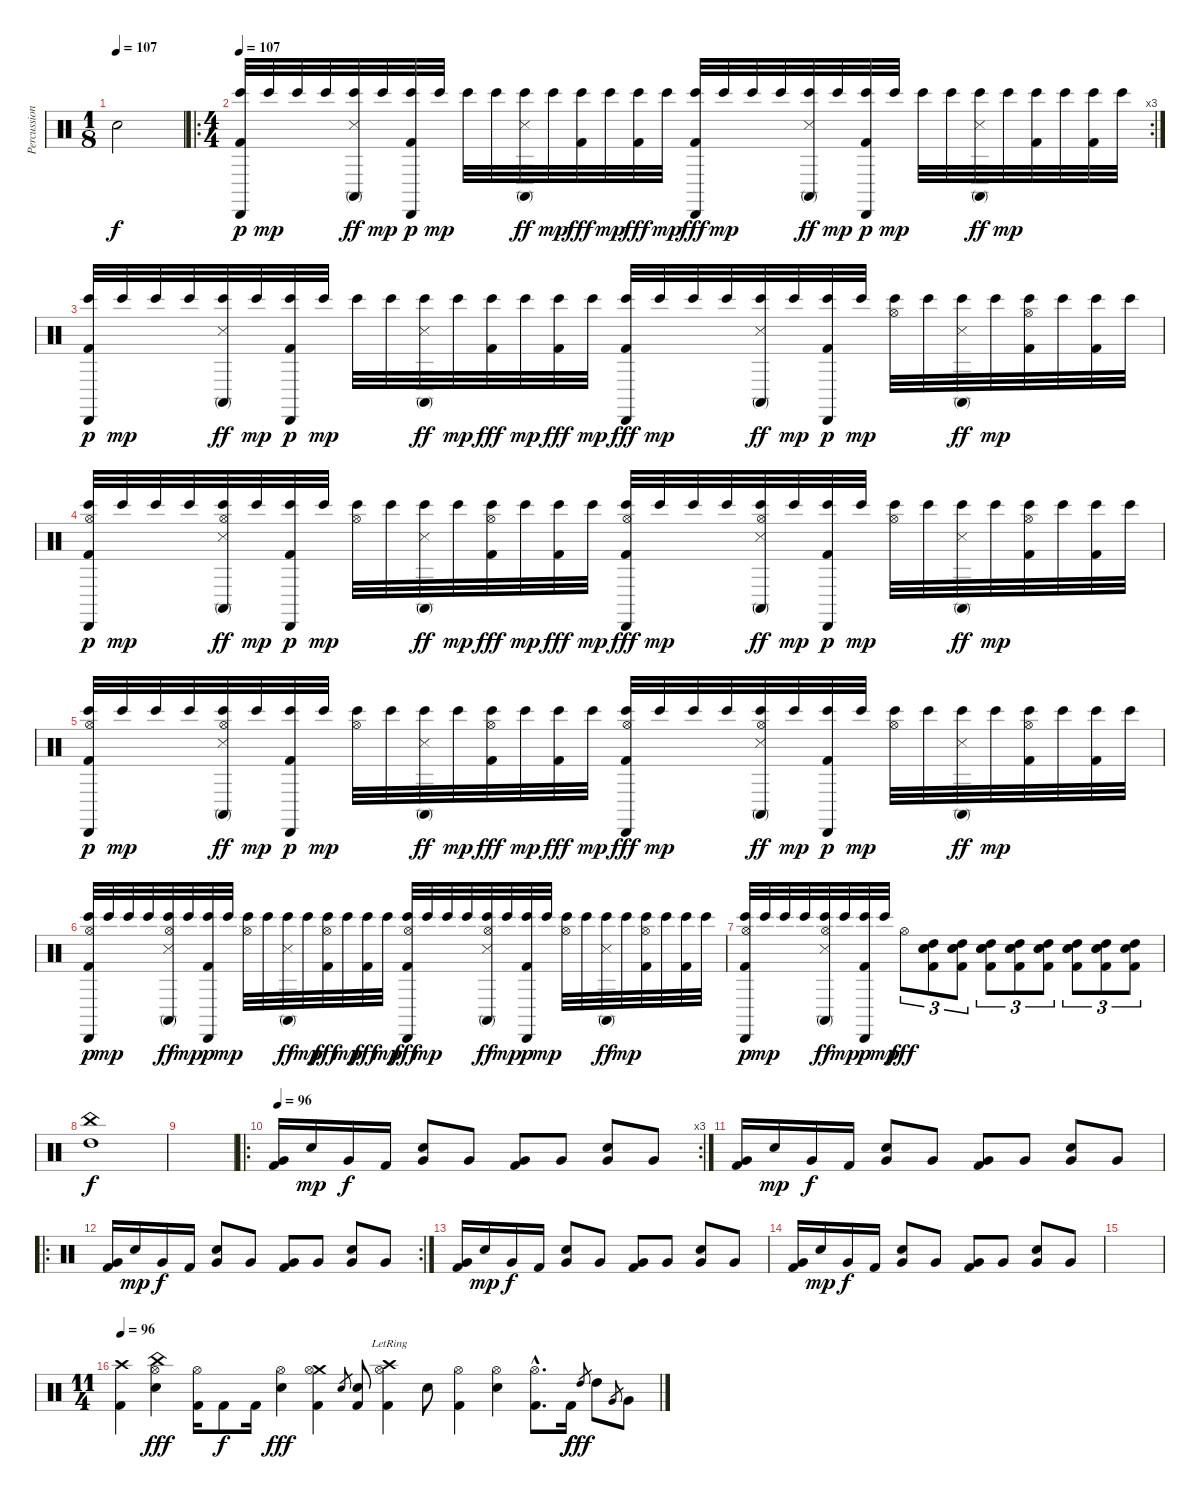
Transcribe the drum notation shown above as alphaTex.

\track ("Percussion" "Percussion") {instrument percussion}
\staff {score}
\articulation defaults
\ts (1 8)
\tempo 107
\clef neutral
\ks c "Snare (hit)"{t}.2{dy f}
|
\ro
\rc 3
\ts (4 4)
\tempo 107
("Bongo High (hit)" "Kick (hit) 2" "Cabasa (hit)").32{dy p} "Bongo High (hit)".32{dy mp} "Bongo High (hit)".32 "Bongo High (hit)".32 ("Bongo High (hit)" "Conga high (mute)" "Metronome (hit)").32{dy ff} "Bongo High (hit)".32{dy mp} ("Bongo High (hit)" "Cabasa (hit)" "Kick (hit) 2").32{dy p} "Bongo High (hit)".32{dy mp} "Bongo High (hit)".32 "Bongo High (hit)".32 ("Bongo High (hit)" "Metronome (hit)" "Conga high (mute)").32{dy ff} "Bongo High (hit)".32{dy mp} ("Bongo High (hit)" "Kick (hit) 2").32{dy fff} "Bongo High (hit)".32{dy mp} ("Bongo High (hit)" "Kick (hit) 2").32{dy fff} "Bongo High (hit)".32{dy mp} ("Bongo High (hit)" "Cabasa (hit)" "Kick (hit) 2").32{dy fff} "Bongo High (hit)".32{dy mp} "Bongo High (hit)".32 "Bongo High (hit)".32 ("Bongo High (hit)" "Conga high (mute)" "Metronome (hit)").32{dy ff} "Bongo High (hit)".32{dy mp} ("Bongo High (hit)" "Cabasa (hit)" "Kick (hit) 2").32{dy p} "Bongo High (hit)".32{dy mp} "Bongo High (hit)".32 "Bongo High (hit)".32 ("Bongo High (hit)" "Conga high (mute)" "Metronome (hit)").32{dy ff} "Bongo High (hit)".32{dy mp} ("Bongo High (hit)" "Kick (hit) 2").32 "Bongo High (hit)".32 ("Bongo High (hit)" "Kick (hit) 2").32 "Bongo High (hit)".32 |
("Bongo High (hit)" "Kick (hit) 2" "Cabasa (hit)").32{dy p} "Bongo High (hit)".32{dy mp} "Bongo High (hit)".32 "Bongo High (hit)".32 ("Bongo High (hit)" "Conga high (mute)" "Metronome (hit)").32{dy ff} "Bongo High (hit)".32{dy mp} ("Bongo High (hit)" "Cabasa (hit)" "Kick (hit) 2").32{dy p} "Bongo High (hit)".32{dy mp} "Bongo High (hit)".32 "Bongo High (hit)".32 ("Bongo High (hit)" "Metronome (hit)" "Conga high (mute)").32{dy ff} "Bongo High (hit)".32{dy mp} ("Bongo High (hit)" "Kick (hit) 2").32{dy fff} "Bongo High (hit)".32{dy mp} ("Bongo High (hit)" "Kick (hit) 2").32{dy fff} "Bongo High (hit)".32{dy mp} ("Bongo High (hit)" "Cabasa (hit)" "Kick (hit) 2").32{dy fff} "Bongo High (hit)".32{dy mp} "Bongo High (hit)".32 "Bongo High (hit)".32 ("Bongo High (hit)" "Conga high (mute)" "Metronome (hit)").32{dy ff} "Bongo High (hit)".32{dy mp} ("Bongo High (hit)" "Cabasa (hit)" "Kick (hit) 2").32{dy p} "Bongo High (hit)".32{dy mp} ("Hi-Hat (open)" "Bongo High (hit)").32 "Bongo High (hit)".32 ("Bongo High (hit)" "Conga high (mute)" "Metronome (hit)").32{dy ff} "Bongo High (hit)".32{dy mp} ("Hi-Hat (open)" "Bongo High (hit)" "Kick (hit) 2").32 "Bongo High (hit)".32 ("Bongo High (hit)" "Kick (hit) 2").32 "Bongo High (hit)".32 |
("Hi-Hat (open)" "Bongo High (hit)" "Kick (hit) 2" "Cabasa (hit)").32{dy p} "Bongo High (hit)".32{dy mp} "Bongo High (hit)".32 "Bongo High (hit)".32 ("Hi-Hat (open)" "Bongo High (hit)" "Conga high (mute)" "Metronome (hit)").32{dy ff} "Bongo High (hit)".32{dy mp} ("Bongo High (hit)" "Cabasa (hit)" "Kick (hit) 2").32{dy p} "Bongo High (hit)".32{dy mp} ("Hi-Hat (open)" "Bongo High (hit)").32 "Bongo High (hit)".32 ("Bongo High (hit)" "Metronome (hit)" "Conga high (mute)").32{dy ff} "Bongo High (hit)".32{dy mp} ("Hi-Hat (open)" "Bongo High (hit)" "Kick (hit) 2").32{dy fff} "Bongo High (hit)".32{dy mp} ("Bongo High (hit)" "Kick (hit) 2").32{dy fff} "Bongo High (hit)".32{dy mp} ("Hi-Hat (open)" "Bongo High (hit)" "Cabasa (hit)" "Kick (hit) 2").32{dy fff} "Bongo High (hit)".32{dy mp} "Bongo High (hit)".32 "Bongo High (hit)".32 ("Hi-Hat (open)" "Bongo High (hit)" "Conga high (mute)" "Metronome (hit)").32{dy ff} "Bongo High (hit)".32{dy mp} ("Bongo High (hit)" "Cabasa (hit)" "Kick (hit) 2").32{dy p} "Bongo High (hit)".32{dy mp} ("Hi-Hat (open)" "Bongo High (hit)").32 "Bongo High (hit)".32 ("Bongo High (hit)" "Conga high (mute)" "Metronome (hit)").32{dy ff} "Bongo High (hit)".32{dy mp} ("Hi-Hat (open)" "Bongo High (hit)" "Kick (hit) 2").32 "Bongo High (hit)".32 ("Bongo High (hit)" "Kick (hit) 2").32 "Bongo High (hit)".32 |
("Hi-Hat (open)" "Bongo High (hit)" "Kick (hit) 2" "Cabasa (hit)").32{dy p} "Bongo High (hit)".32{dy mp} "Bongo High (hit)".32 "Bongo High (hit)".32 ("Hi-Hat (open)" "Bongo High (hit)" "Conga high (mute)" "Metronome (hit)").32{dy ff} "Bongo High (hit)".32{dy mp} ("Bongo High (hit)" "Cabasa (hit)" "Kick (hit) 2").32{dy p} "Bongo High (hit)".32{dy mp} ("Hi-Hat (open)" "Bongo High (hit)").32 "Bongo High (hit)".32 ("Bongo High (hit)" "Metronome (hit)" "Conga high (mute)").32{dy ff} "Bongo High (hit)".32{dy mp} ("Hi-Hat (open)" "Bongo High (hit)" "Kick (hit) 2").32{dy fff} "Bongo High (hit)".32{dy mp} ("Bongo High (hit)" "Kick (hit) 2").32{dy fff} "Bongo High (hit)".32{dy mp} ("Hi-Hat (open)" "Bongo High (hit)" "Cabasa (hit)" "Kick (hit) 2").32{dy fff} "Bongo High (hit)".32{dy mp} "Bongo High (hit)".32 "Bongo High (hit)".32 ("Hi-Hat (open)" "Bongo High (hit)" "Conga high (mute)" "Metronome (hit)").32{dy ff} "Bongo High (hit)".32{dy mp} ("Bongo High (hit)" "Cabasa (hit)" "Kick (hit) 2").32{dy p} "Bongo High (hit)".32{dy mp} ("Hi-Hat (open)" "Bongo High (hit)").32 "Bongo High (hit)".32 ("Bongo High (hit)" "Conga high (mute)" "Metronome (hit)").32{dy ff} "Bongo High (hit)".32{dy mp} ("Hi-Hat (open)" "Bongo High (hit)" "Kick (hit) 2").32 "Bongo High (hit)".32 ("Bongo High (hit)" "Kick (hit) 2").32 "Bongo High (hit)".32 |
("Hi-Hat (open)" "Bongo High (hit)" "Kick (hit) 2" "Cabasa (hit)").32{dy p} "Bongo High (hit)".32{dy mp} "Bongo High (hit)".32 "Bongo High (hit)".32 ("Hi-Hat (open)" "Bongo High (hit)" "Conga high (mute)" "Metronome (hit)").32{dy ff} "Bongo High (hit)".32{dy mp} ("Bongo High (hit)" "Cabasa (hit)" "Kick (hit) 2").32{dy p} "Bongo High (hit)".32{dy mp} ("Hi-Hat (open)" "Bongo High (hit)").32 "Bongo High (hit)".32 ("Bongo High (hit)" "Metronome (hit)" "Conga high (mute)").32{dy ff} "Bongo High (hit)".32{dy mp} ("Hi-Hat (open)" "Bongo High (hit)" "Kick (hit) 2").32{dy fff} "Bongo High (hit)".32{dy mp} ("Bongo High (hit)" "Kick (hit) 2").32{dy fff} "Bongo High (hit)".32{dy mp} ("Hi-Hat (open)" "Bongo High (hit)" "Cabasa (hit)" "Kick (hit) 2").32{dy fff} "Bongo High (hit)".32{dy mp} "Bongo High (hit)".32 "Bongo High (hit)".32 ("Hi-Hat (open)" "Bongo High (hit)" "Conga high (mute)" "Metronome (hit)").32{dy ff} "Bongo High (hit)".32{dy mp} ("Bongo High (hit)" "Cabasa (hit)" "Kick (hit) 2").32{dy p} "Bongo High (hit)".32{dy mp} ("Hi-Hat (open)" "Bongo High (hit)").32 "Bongo High (hit)".32 ("Bongo High (hit)" "Conga high (mute)" "Metronome (hit)").32{dy ff} "Bongo High (hit)".32{dy mp} ("Hi-Hat (open)" "Bongo High (hit)" "Kick (hit) 2").32 "Bongo High (hit)".32 ("Bongo High (hit)" "Kick (hit) 2").32 "Bongo High (hit)".32 |
("Hi-Hat (open)" "Bongo High (hit)" "Kick (hit) 2" "Cabasa (hit)").32{dy p} "Bongo High (hit)".32{dy mp} "Bongo High (hit)".32 "Bongo High (hit)".32 ("Hi-Hat (open)" "Bongo High (hit)" "Conga high (mute)" "Metronome (hit)").32{dy ff} "Bongo High (hit)".32{dy mp} ("Bongo High (hit)" "Cabasa (hit)" "Kick (hit) 2").32{dy p} "Bongo High (hit)".32{dy mp} "Hi-Hat (open)".8{tu (3 2) dy fff} ("High Tom (hit)" "Snare (hit) 2" "Electric Snare (hit)" "Kick (hit) 2").8{tu (3 2)} ("High Tom (hit)" "Snare (hit) 2" "Electric Snare (hit)" "Kick (hit) 2").8{tu (3 2)} ("High Tom (hit)" "Snare (hit) 2" "Electric Snare (hit)" "Kick (hit) 2").8{tu (3 2)} ("High Tom (hit)" "Snare (hit) 2" "Electric Snare (hit)" "Kick (hit) 2").8{tu (3 2)} ("High Tom (hit)" "Snare (hit) 2" "Electric Snare (hit)" "Kick (hit) 2").8{tu (3 2)} ("High Tom (hit)" "Snare (hit) 2" "Electric Snare (hit)" "Kick (hit) 2").8{tu (3 2)} ("High Tom (hit)" "Snare (hit) 2" "Electric Snare (hit)" "Kick (hit) 2").8{tu (3 2)} ("High Tom (hit)" "Snare (hit) 2" "Kick (hit) 2").8{tu (3 2)} |
("High Tom (hit)" "China (hit)").1{dy f} |
|
\ro
\rc 3
\tempo 96
("Very Low Tom (hit)" "Kick (hit) 2").16 "Electric Snare (hit)".16{dy mp} "Very Low Tom (hit)".16{dy f} "Kick (hit) 2".16 ("Very Low Tom (hit)" "Electric Snare (hit)").8 "Very Low Tom (hit)".8 ("Very Low Tom (hit)" "Kick (hit) 2").8 "Very Low Tom (hit)".8 ("Very Low Tom (hit)" "Electric Snare (hit)").8 "Very Low Tom (hit)".8 |
("Very Low Tom (hit)" "Kick (hit) 2").16 "Electric Snare (hit)".16{dy mp} "Very Low Tom (hit)".16{dy f} "Kick (hit) 2".16 ("Very Low Tom (hit)" "Electric Snare (hit)").8 "Very Low Tom (hit)".8 ("Very Low Tom (hit)" "Kick (hit) 2").8 "Very Low Tom (hit)".8 ("Very Low Tom (hit)" "Electric Snare (hit)").8 "Very Low Tom (hit)".8 |
\ro
\rc 2
("Very Low Tom (hit)" "Kick (hit) 2").16 "Electric Snare (hit)".16{dy mp} "Very Low Tom (hit)".16{dy f} "Kick (hit) 2".16 ("Very Low Tom (hit)" "Electric Snare (hit)").8 "Very Low Tom (hit)".8 ("Very Low Tom (hit)" "Kick (hit) 2").8 "Very Low Tom (hit)".8 ("Very Low Tom (hit)" "Electric Snare (hit)").8 "Very Low Tom (hit)".8 |
("Very Low Tom (hit)" "Kick (hit) 2").16 "Electric Snare (hit)".16{dy mp} "Very Low Tom (hit)".16{dy f} "Kick (hit) 2".16 ("Very Low Tom (hit)" "Electric Snare (hit)").8 "Very Low Tom (hit)".8 ("Very Low Tom (hit)" "Kick (hit) 2").8 "Very Low Tom (hit)".8 ("Very Low Tom (hit)" "Electric Snare (hit)").8 "Very Low Tom (hit)".8 |
("Very Low Tom (hit)" "Kick (hit) 2").16 "Electric Snare (hit)".16{dy mp} "Very Low Tom (hit)".16{dy f} "Kick (hit) 2".16 ("Very Low Tom (hit)" "Electric Snare (hit)").8 "Very Low Tom (hit)".8 ("Very Low Tom (hit)" "Kick (hit) 2").8 "Very Low Tom (hit)".8 ("Very Low Tom (hit)" "Electric Snare (hit)").8 "Very Low Tom (hit)".8 |
|
\ts (11 4)
\tempo 96
("Crash high (hit)" "Kick (hit) 2").4{volume 16} ("China (hit)" "Hi-Hat (open)" "Electric Snare (hit)").4{dy fff} ("Hi-Hat (open)" "Kick (hit) 2").16 "Kick (hit) 2".8{dy f} "Kick (hit) 2".16 ("Hi-Hat (open)" "Electric Snare (hit)").4{dy fff} ("Crash medium (hit)" "Hi-Hat (open)" "Kick (hit) 2").4 "Electric Snare (hit)".8{gr} ("Electric Snare (hit)" "Kick (hit) 2").8 ("Crash high (hit)" "Hi-Hat (open)"{lr} "Kick (hit) 2").4{volume 16} "Electric Snare (hit)".8 ("Hi-Hat (open)" "Kick (hit) 2").4 ("Hi-Hat (open)" "Electric Snare (hit)").4 ("Hi-Hat (open)"{hac} "Kick (hit) 2"{hac}).8{d} "Kick (hit) 2".16{dy f} "High Tom (hit)".8{gr dy fff} "High Tom (hit)".8 "Very Low Tom (hit)".8{gr} "Very Low Tom (hit)".8
